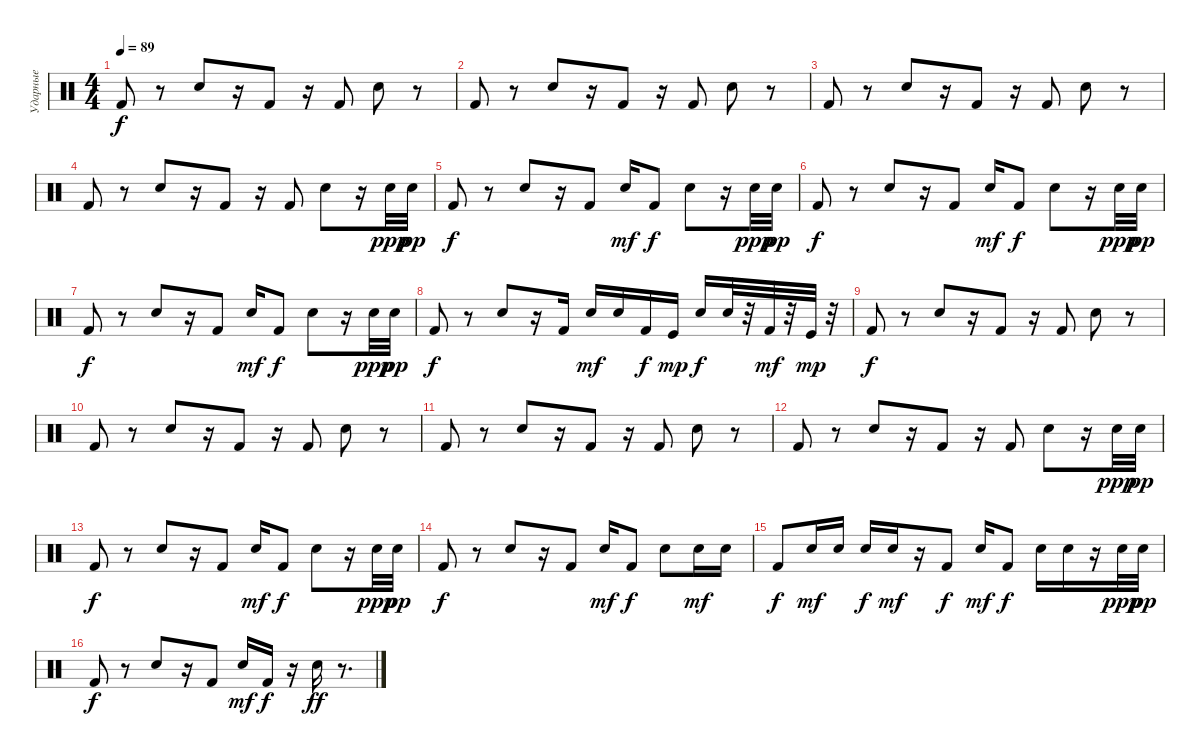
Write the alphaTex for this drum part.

\track ("Ударные " "Ударные ") {instrument percussion}
\staff {score}
\articulation defaults
\ts (4 4)
\tempo 89
\clef neutral
\ks c "Kick (hit) 2".8{dy f}
r.8 "Snare (hit) 2".8 r.16 "Kick (hit) 2".8 r.16 "Kick (hit) 2".8 "Snare (hit) 2".8 r.8 |
"Kick (hit) 2".8 r.8 "Snare (hit) 2".8 r.16 "Kick (hit) 2".8 r.16 "Kick (hit) 2".8 "Snare (hit) 2".8 r.8 |
"Kick (hit) 2".8 r.8 "Snare (hit) 2".8 r.16 "Kick (hit) 2".8 r.16 "Kick (hit) 2".8 "Snare (hit) 2".8 r.8 |
"Kick (hit) 2".8 r.8 "Snare (hit) 2".8 r.16 "Kick (hit) 2".8 r.16 "Kick (hit) 2".8 "Snare (hit) 2".8 r.16 "Snare (hit) 2".32{dy ppp} "Snare (hit) 2".32{dy pp} |
"Kick (hit) 2".8{dy f} r.8 "Snare (hit) 2".8 r.16 "Kick (hit) 2".8 "Snare (hit) 2".16{dy mf} "Kick (hit) 2".8{dy f} "Snare (hit) 2".8 r.16 "Snare (hit) 2".32{dy ppp} "Snare (hit) 2".32{dy pp} |
"Kick (hit) 2".8{dy f} r.8 "Snare (hit) 2".8 r.16 "Kick (hit) 2".8 "Snare (hit) 2".16{dy mf} "Kick (hit) 2".8{dy f} "Snare (hit) 2".8 r.16 "Snare (hit) 2".32{dy ppp} "Snare (hit) 2".32{dy pp} |
"Kick (hit) 2".8{dy f} r.8 "Snare (hit) 2".8 r.16 "Kick (hit) 2".8 "Snare (hit) 2".16{dy mf} "Kick (hit) 2".8{dy f} "Snare (hit) 2".8 r.16 "Snare (hit) 2".32{dy ppp} "Snare (hit) 2".32{dy pp} |
"Kick (hit) 2".8{dy f} r.8 "Snare (hit) 2".8 r.16 "Kick (hit) 2".16 "Snare (hit) 2".16{dy mf} "Snare (hit) 2".16 "Kick (hit) 2".16{dy f} "Kick (hit)".16{dy mp} "Snare (hit) 2".16{dy f} "Snare (hit) 2".32 r.32 "Kick (hit) 2".32{dy mf} r.32 "Kick (hit)".32{dy mp} r.32 |
"Kick (hit) 2".8{dy f} r.8 "Snare (hit) 2".8 r.16 "Kick (hit) 2".8 r.16 "Kick (hit) 2".8 "Snare (hit) 2".8 r.8 |
"Kick (hit) 2".8 r.8 "Snare (hit) 2".8 r.16 "Kick (hit) 2".8 r.16 "Kick (hit) 2".8 "Snare (hit) 2".8 r.8 |
"Kick (hit) 2".8 r.8 "Snare (hit) 2".8 r.16 "Kick (hit) 2".8 r.16 "Kick (hit) 2".8 "Snare (hit) 2".8 r.8 |
"Kick (hit) 2".8 r.8 "Snare (hit) 2".8 r.16 "Kick (hit) 2".8 r.16 "Kick (hit) 2".8 "Snare (hit) 2".8 r.16 "Snare (hit) 2".32{dy ppp} "Snare (hit) 2".32{dy pp} |
"Kick (hit) 2".8{dy f} r.8 "Snare (hit) 2".8 r.16 "Kick (hit) 2".8 "Snare (hit) 2".16{dy mf} "Kick (hit) 2".8{dy f} "Snare (hit) 2".8 r.16 "Snare (hit) 2".32{dy ppp} "Snare (hit) 2".32{dy pp} |
"Kick (hit) 2".8{dy f} r.8 "Snare (hit) 2".8 r.16 "Kick (hit) 2".8 "Snare (hit) 2".16{dy mf} "Kick (hit) 2".8{dy f} "Snare (hit) 2".8 "Snare (hit) 2".16{dy mf} "Snare (hit) 2".16 |
"Kick (hit) 2".8{dy f} "Snare (hit) 2".16{dy mf} "Snare (hit) 2".16 "Snare (hit) 2".16{dy f} "Snare (hit) 2".16{dy mf} r.16 "Kick (hit) 2".8{dy f} "Snare (hit) 2".16{dy mf} "Kick (hit) 2".8{dy f} "Snare (hit) 2".16 "Snare (hit) 2".16 r.16 "Snare (hit) 2".32{dy ppp} "Snare (hit) 2".32{dy pp} |
"Kick (hit) 2".8{dy f} r.8 "Snare (hit) 2".8 r.16 "Kick (hit) 2".8 "Snare (hit) 2".16{dy mf} "Kick (hit) 2".16{dy f} r.16 "Electric Snare (hit)".16{dy ff} r.8{d}
